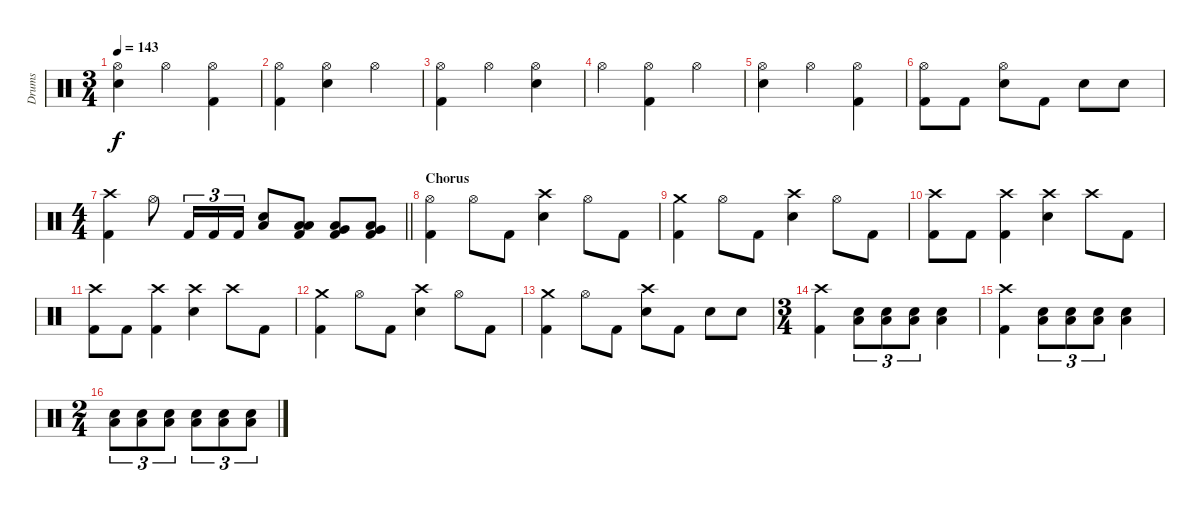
\track ("Drums" "Drums") {instrument percussion}
\staff {score}
\articulation defaults
\ts (3 4)
\tempo 143
\clef neutral
\ks c
("Hi-Hat (open)" "Electric Snare (hit)").4{dy f} "Hi-Hat (open)".4 ("Hi-Hat (open)" "Kick (hit) 2").4 |
("Hi-Hat (open)" "Kick (hit) 2").4 ("Hi-Hat (open)" "Electric Snare (hit)").4 "Hi-Hat (open)".4 |
("Hi-Hat (open)" "Kick (hit) 2").4 "Hi-Hat (open)".4 ("Hi-Hat (open)" "Electric Snare (hit)").4 |
"Hi-Hat (open)".4 ("Hi-Hat (open)" "Kick (hit) 2").4 "Hi-Hat (open)".4 |
("Hi-Hat (open)" "Electric Snare (hit)").4 "Hi-Hat (open)".4 ("Hi-Hat (open)" "Kick (hit) 2").4 |
("Hi-Hat (open)" "Kick (hit) 2").8 "Kick (hit) 2".8 ("Hi-Hat (open)" "Electric Snare (hit)").8 "Kick (hit) 2".8 "Electric Snare (hit)".8 "Electric Snare (hit)".8 |
\ts (4 4)
\barLineRight lightlight
("Crash high (hit)" "Kick (hit) 2").4 "Hi-Hat (open)".8 "Kick (hit) 2".16{tu (3 2)} "Kick (hit) 2".16{tu (3 2)} "Kick (hit) 2".16{tu (3 2)} ("Electric Snare (hit)" "Low Floor Tom (hit)").8 ("Low Tom (hit)" "Low Floor Tom (hit)" "Kick (hit) 2").8 ("Very Low Tom (hit)" "Low Floor Tom (hit)" "Kick (hit) 2").8 ("Very Low Tom (hit)" "Low Floor Tom (hit)" "Kick (hit) 2").8 |
\section ("" "Chorus")
("Hi-Hat (open)" "Kick (hit) 2").4 "Hi-Hat (open)".8 "Kick (hit) 2".8 ("Crash high (hit)" "Electric Snare (hit)").4 "Hi-Hat (open)".8 "Kick (hit) 2".8 |
("Crash medium (hit)" "Kick (hit) 2").4 "Hi-Hat (open)".8 "Kick (hit) 2".8 ("Crash high (hit)" "Electric Snare (hit)").4 "Hi-Hat (open)".8 "Kick (hit) 2".8 |
("Crash high (hit)" "Kick (hit) 2").8 "Kick (hit) 2".8 ("Crash high (hit)" "Kick (hit) 2").4 ("Crash high (hit)" "Electric Snare (hit)").4 "Crash high (hit)".8 "Kick (hit) 2".8 |
("Crash high (hit)" "Kick (hit) 2").8 "Kick (hit) 2".8 ("Crash high (hit)" "Kick (hit) 2").4 ("Crash high (hit)" "Electric Snare (hit)").4 "Crash high (hit)".8 "Kick (hit) 2".8 |
("Crash medium (hit)" "Kick (hit) 2").4 "Hi-Hat (open)".8 "Kick (hit) 2".8 ("Crash high (hit)" "Electric Snare (hit)").4 "Hi-Hat (open)".8 "Kick (hit) 2".8 |
("Crash medium (hit)" "Kick (hit) 2").4 "Hi-Hat (open)".8 "Kick (hit) 2".8 ("Crash high (hit)" "Electric Snare (hit)").8 "Kick (hit) 2".8 "Electric Snare (hit)".8 "Electric Snare (hit)".8 |
\ts (3 4)
("Crash high (hit)" "Kick (hit) 2").4 ("Electric Snare (hit)" "Low Floor Tom (hit)").8{tu (3 2)} ("Electric Snare (hit)" "Low Floor Tom (hit)").8{tu (3 2)} ("Electric Snare (hit)" "Low Floor Tom (hit)").8{tu (3 2)} ("Electric Snare (hit)" "Low Floor Tom (hit)").4 |
("Crash high (hit)" "Kick (hit) 2").4 ("Electric Snare (hit)" "Low Floor Tom (hit)").8{tu (3 2)} ("Electric Snare (hit)" "Low Floor Tom (hit)").8{tu (3 2)} ("Electric Snare (hit)" "Low Floor Tom (hit)").8{tu (3 2)} ("Electric Snare (hit)" "Low Floor Tom (hit)").4 |
\ts (2 4)
("Electric Snare (hit)" "Low Floor Tom (hit)").8{tu (3 2)} ("Electric Snare (hit)" "Low Floor Tom (hit)").8{tu (3 2)} ("Electric Snare (hit)" "Low Floor Tom (hit)").8{tu (3 2)} ("Electric Snare (hit)" "Low Floor Tom (hit)").8{tu (3 2)} ("Electric Snare (hit)" "Low Floor Tom (hit)").8{tu (3 2)} ("Electric Snare (hit)" "Low Floor Tom (hit)").8{tu (3 2)}
